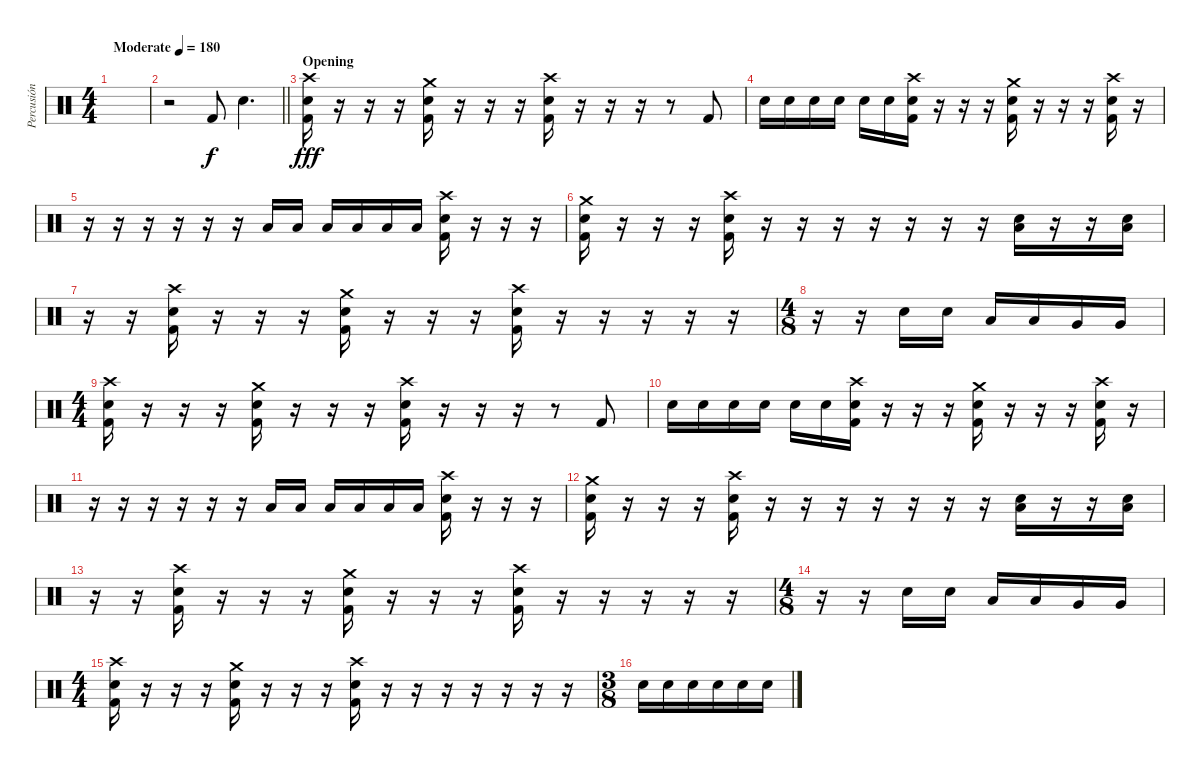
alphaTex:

\track ("Percusión" "Percusión") {instrument percussion}
\staff {score}
\articulation defaults
\ts (4 4)
\tempo (180 "Moderate")
\clef neutral
\ks c
|
\barLineRight lightlight
r.2 "Kick (hit) 2".8 "Snare (hit) 2".4{d} |
\section ("" "Opening")
("Crash high (hit)" "Snare (hit) 2" "Kick (hit) 2").16{dy fff} r.16 r.16 r.16 ("Crash medium (hit)" "Snare (hit) 2" "Kick (hit) 2").16 r.16 r.16 r.16 ("Crash high (hit)" "Snare (hit) 2" "Kick (hit) 2").16 r.16 r.16 r.16 r.8 "Kick (hit) 2".8 |
"Snare (hit) 2".16 "Snare (hit) 2".16 "Snare (hit) 2".16 "Snare (hit) 2".16 "Snare (hit) 2".16 "Snare (hit) 2".16 ("Crash high (hit)" "Snare (hit) 2" "Kick (hit) 2").16 r.16 r.16 r.16 ("Crash medium (hit)" "Snare (hit) 2" "Kick (hit) 2").16 r.16 r.16 r.16 ("Crash high (hit)" "Snare (hit) 2" "Kick (hit) 2").16 r.16 |
r.16 r.16 r.16 r.16 r.16 r.16 "Low Tom (hit)".16 "Low Tom (hit)".16 "Low Tom (hit)".16 "Low Tom (hit)".16 "Low Tom (hit)".16 "Low Tom (hit)".16 ("Crash high (hit)" "Snare (hit) 2" "Kick (hit) 2").16 r.16 r.16 r.16 |
("Crash medium (hit)" "Snare (hit) 2" "Kick (hit) 2").16 r.16 r.16 r.16 ("Crash high (hit)" "Snare (hit) 2" "Kick (hit) 2").16 r.16 r.16 r.16 r.16 r.16 r.16 r.16 ("Snare (hit) 2" "Low Tom (hit)").16 r.16 r.16 ("Snare (hit) 2" "Low Tom (hit)").16 |
r.16 r.16 ("Crash high (hit)" "Snare (hit) 2" "Kick (hit) 2").16 r.16 r.16 r.16 ("Crash medium (hit)" "Snare (hit) 2" "Kick (hit) 2").16 r.16 r.16 r.16 ("Crash high (hit)" "Snare (hit) 2" "Kick (hit) 2").16 r.16 r.16 r.16 r.16 r.16 |
\ts (4 8)
r.16 r.16 "Snare (hit) 2".16 "Snare (hit) 2".16 "Low Tom (hit)".16 "Low Tom (hit)".16 "Very Low Tom (hit)".16 "Very Low Tom (hit)".16 |
\ts (4 4)
("Crash high (hit)" "Snare (hit) 2" "Kick (hit) 2").16 r.16 r.16 r.16 ("Crash medium (hit)" "Snare (hit) 2" "Kick (hit) 2").16 r.16 r.16 r.16 ("Crash high (hit)" "Snare (hit) 2" "Kick (hit) 2").16 r.16 r.16 r.16 r.8 "Kick (hit) 2".8 |
"Snare (hit) 2".16 "Snare (hit) 2".16 "Snare (hit) 2".16 "Snare (hit) 2".16 "Snare (hit) 2".16 "Snare (hit) 2".16 ("Crash high (hit)" "Snare (hit) 2" "Kick (hit) 2").16 r.16 r.16 r.16 ("Crash medium (hit)" "Snare (hit) 2" "Kick (hit) 2").16 r.16 r.16 r.16 ("Crash high (hit)" "Snare (hit) 2" "Kick (hit) 2").16 r.16 |
r.16 r.16 r.16 r.16 r.16 r.16 "Low Tom (hit)".16 "Low Tom (hit)".16 "Low Tom (hit)".16 "Low Tom (hit)".16 "Low Tom (hit)".16 "Low Tom (hit)".16 ("Crash high (hit)" "Snare (hit) 2" "Kick (hit) 2").16 r.16 r.16 r.16 |
("Crash medium (hit)" "Snare (hit) 2" "Kick (hit) 2").16 r.16 r.16 r.16 ("Crash high (hit)" "Snare (hit) 2" "Kick (hit) 2").16 r.16 r.16 r.16 r.16 r.16 r.16 r.16 ("Snare (hit) 2" "Low Tom (hit)").16 r.16 r.16 ("Snare (hit) 2" "Low Tom (hit)").16 |
r.16 r.16 ("Crash high (hit)" "Snare (hit) 2" "Kick (hit) 2").16 r.16 r.16 r.16 ("Crash medium (hit)" "Snare (hit) 2" "Kick (hit) 2").16 r.16 r.16 r.16 ("Crash high (hit)" "Snare (hit) 2" "Kick (hit) 2").16 r.16 r.16 r.16 r.16 r.16 |
\ts (4 8)
r.16 r.16 "Snare (hit) 2".16 "Snare (hit) 2".16 "Low Tom (hit)".16 "Low Tom (hit)".16 "Very Low Tom (hit)".16 "Very Low Tom (hit)".16 |
\ts (4 4)
("Crash high (hit)" "Snare (hit) 2" "Kick (hit) 2").16 r.16 r.16 r.16 ("Crash medium (hit)" "Snare (hit) 2" "Kick (hit) 2").16 r.16 r.16 r.16 ("Crash high (hit)" "Snare (hit) 2" "Kick (hit) 2").16 r.16 r.16 r.16 r.16 r.16 r.16 r.16 |
\ts (3 8)
"Snare (hit) 2".16 "Snare (hit) 2".16 "Snare (hit) 2".16 "Snare (hit) 2".16 "Snare (hit) 2".16 "Snare (hit) 2".16
